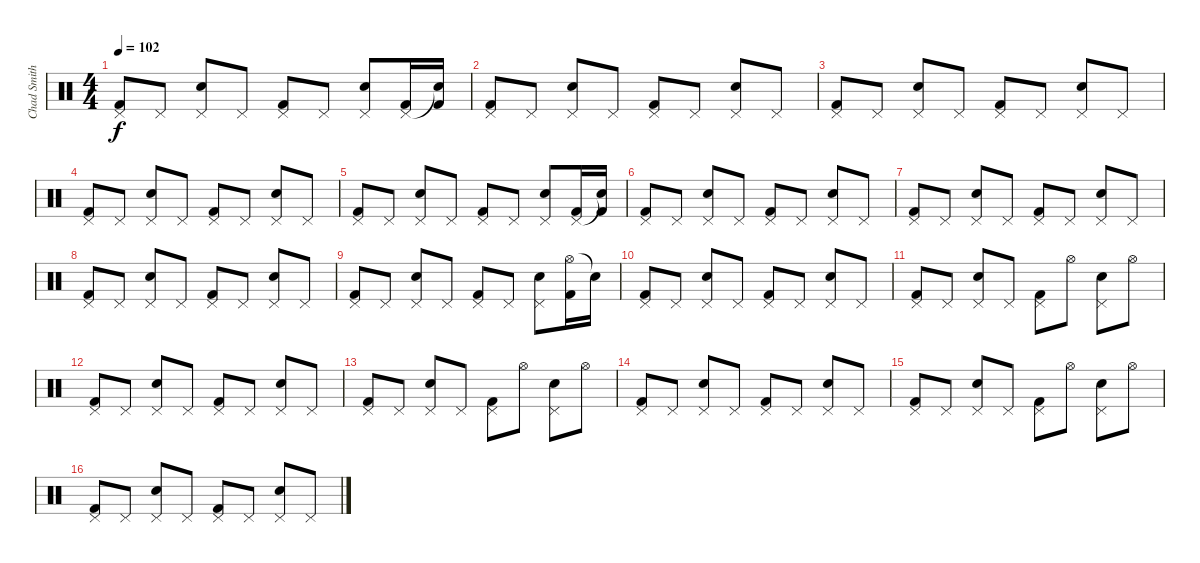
\track ("Chad Smith (Batterie)" "Chad Smith") {instrument percussion}
\staff {score}
\articulation defaults
\ts (4 4)
\tempo 102
\clef neutral
\ks c
("Pedal Hi-Hat (hit)" "Kick (hit) 2").8{dy f} "Pedal Hi-Hat (hit)".8 ("Pedal Hi-Hat (hit)" "Electric Snare (hit)").8 "Pedal Hi-Hat (hit)".8 ("Pedal Hi-Hat (hit)" "Kick (hit) 2").8 "Pedal Hi-Hat (hit)".8 ("Pedal Hi-Hat (hit)" "Electric Snare (hit)").8 ("Pedal Hi-Hat (hit)" "Kick (hit) 2").16 ("Snare (hit)"{t} "Kick (hit) 2").16 |
("Pedal Hi-Hat (hit)" "Kick (hit) 2").8 "Pedal Hi-Hat (hit)".8 ("Pedal Hi-Hat (hit)" "Electric Snare (hit)").8 "Pedal Hi-Hat (hit)".8 ("Pedal Hi-Hat (hit)" "Kick (hit) 2").8 "Pedal Hi-Hat (hit)".8 ("Pedal Hi-Hat (hit)" "Electric Snare (hit)").8 "Pedal Hi-Hat (hit)".8 |
("Pedal Hi-Hat (hit)" "Kick (hit) 2").8 "Pedal Hi-Hat (hit)".8 ("Pedal Hi-Hat (hit)" "Electric Snare (hit)").8 "Pedal Hi-Hat (hit)".8 ("Pedal Hi-Hat (hit)" "Kick (hit) 2").8 "Pedal Hi-Hat (hit)".8 ("Pedal Hi-Hat (hit)" "Electric Snare (hit)").8 "Pedal Hi-Hat (hit)".8 |
("Pedal Hi-Hat (hit)" "Kick (hit) 2").8 "Pedal Hi-Hat (hit)".8 ("Pedal Hi-Hat (hit)" "Electric Snare (hit)").8 "Pedal Hi-Hat (hit)".8 ("Pedal Hi-Hat (hit)" "Kick (hit) 2").8 "Pedal Hi-Hat (hit)".8 ("Pedal Hi-Hat (hit)" "Electric Snare (hit)").8 "Pedal Hi-Hat (hit)".8 |
("Pedal Hi-Hat (hit)" "Kick (hit) 2").8 "Pedal Hi-Hat (hit)".8 ("Pedal Hi-Hat (hit)" "Electric Snare (hit)").8 "Pedal Hi-Hat (hit)".8 ("Pedal Hi-Hat (hit)" "Kick (hit) 2").8 "Pedal Hi-Hat (hit)".8 ("Pedal Hi-Hat (hit)" "Electric Snare (hit)").8 ("Pedal Hi-Hat (hit)" "Kick (hit) 2").16 ("Snare (hit)"{t} "Kick (hit) 2").16 |
("Pedal Hi-Hat (hit)" "Kick (hit) 2").8 "Pedal Hi-Hat (hit)".8 ("Pedal Hi-Hat (hit)" "Electric Snare (hit)").8 "Pedal Hi-Hat (hit)".8 ("Pedal Hi-Hat (hit)" "Kick (hit) 2").8 "Pedal Hi-Hat (hit)".8 ("Pedal Hi-Hat (hit)" "Electric Snare (hit)").8 "Pedal Hi-Hat (hit)".8 |
("Pedal Hi-Hat (hit)" "Kick (hit) 2").8 "Pedal Hi-Hat (hit)".8 ("Pedal Hi-Hat (hit)" "Electric Snare (hit)").8 "Pedal Hi-Hat (hit)".8 ("Pedal Hi-Hat (hit)" "Kick (hit) 2").8 "Pedal Hi-Hat (hit)".8 ("Pedal Hi-Hat (hit)" "Electric Snare (hit)").8 "Pedal Hi-Hat (hit)".8 |
("Pedal Hi-Hat (hit)" "Kick (hit) 2").8 "Pedal Hi-Hat (hit)".8 ("Pedal Hi-Hat (hit)" "Electric Snare (hit)").8 "Pedal Hi-Hat (hit)".8 ("Pedal Hi-Hat (hit)" "Kick (hit) 2").8 "Pedal Hi-Hat (hit)".8 ("Pedal Hi-Hat (hit)" "Electric Snare (hit)").8 "Pedal Hi-Hat (hit)".8 |
("Pedal Hi-Hat (hit)" "Kick (hit) 2").8 "Pedal Hi-Hat (hit)".8 ("Pedal Hi-Hat (hit)" "Electric Snare (hit)").8 "Pedal Hi-Hat (hit)".8 ("Pedal Hi-Hat (hit)" "Kick (hit) 2").8 "Pedal Hi-Hat (hit)".8 ("Pedal Hi-Hat (hit)" "Electric Snare (hit)").8 ("Hi-Hat (open)" "Kick (hit) 2").16 "Snare (hit)"{t}.16 |
("Pedal Hi-Hat (hit)" "Kick (hit) 2").8 "Pedal Hi-Hat (hit)".8 ("Pedal Hi-Hat (hit)" "Electric Snare (hit)").8 "Pedal Hi-Hat (hit)".8 ("Pedal Hi-Hat (hit)" "Kick (hit) 2").8 "Pedal Hi-Hat (hit)".8 ("Pedal Hi-Hat (hit)" "Electric Snare (hit)").8 "Pedal Hi-Hat (hit)".8 |
("Pedal Hi-Hat (hit)" "Kick (hit) 2").8 "Pedal Hi-Hat (hit)".8 ("Pedal Hi-Hat (hit)" "Electric Snare (hit)").8 "Pedal Hi-Hat (hit)".8 ("Pedal Hi-Hat (hit)" "Kick (hit) 2").8 "Hi-Hat (open)".8 ("Pedal Hi-Hat (hit)" "Electric Snare (hit)").8 "Hi-Hat (open)".8 |
("Pedal Hi-Hat (hit)" "Kick (hit) 2").8 "Pedal Hi-Hat (hit)".8 ("Pedal Hi-Hat (hit)" "Electric Snare (hit)").8 "Pedal Hi-Hat (hit)".8 ("Pedal Hi-Hat (hit)" "Kick (hit) 2").8 "Pedal Hi-Hat (hit)".8 ("Pedal Hi-Hat (hit)" "Electric Snare (hit)").8 "Pedal Hi-Hat (hit)".8 |
("Pedal Hi-Hat (hit)" "Kick (hit) 2").8 "Pedal Hi-Hat (hit)".8 ("Pedal Hi-Hat (hit)" "Electric Snare (hit)").8 "Pedal Hi-Hat (hit)".8 ("Pedal Hi-Hat (hit)" "Kick (hit) 2").8 "Hi-Hat (open)".8 ("Pedal Hi-Hat (hit)" "Electric Snare (hit)").8 "Hi-Hat (open)".8 |
("Pedal Hi-Hat (hit)" "Kick (hit) 2").8 "Pedal Hi-Hat (hit)".8 ("Pedal Hi-Hat (hit)" "Electric Snare (hit)").8 "Pedal Hi-Hat (hit)".8 ("Pedal Hi-Hat (hit)" "Kick (hit) 2").8 "Pedal Hi-Hat (hit)".8 ("Pedal Hi-Hat (hit)" "Electric Snare (hit)").8 "Pedal Hi-Hat (hit)".8 |
("Pedal Hi-Hat (hit)" "Kick (hit) 2").8 "Pedal Hi-Hat (hit)".8 ("Pedal Hi-Hat (hit)" "Electric Snare (hit)").8 "Pedal Hi-Hat (hit)".8 ("Pedal Hi-Hat (hit)" "Kick (hit) 2").8 "Hi-Hat (open)".8 ("Pedal Hi-Hat (hit)" "Electric Snare (hit)").8 "Hi-Hat (open)".8 |
("Pedal Hi-Hat (hit)" "Kick (hit) 2").8 "Pedal Hi-Hat (hit)".8 ("Pedal Hi-Hat (hit)" "Electric Snare (hit)").8 "Pedal Hi-Hat (hit)".8 ("Pedal Hi-Hat (hit)" "Kick (hit) 2").8 "Pedal Hi-Hat (hit)".8 ("Pedal Hi-Hat (hit)" "Electric Snare (hit)").8 "Pedal Hi-Hat (hit)".8
